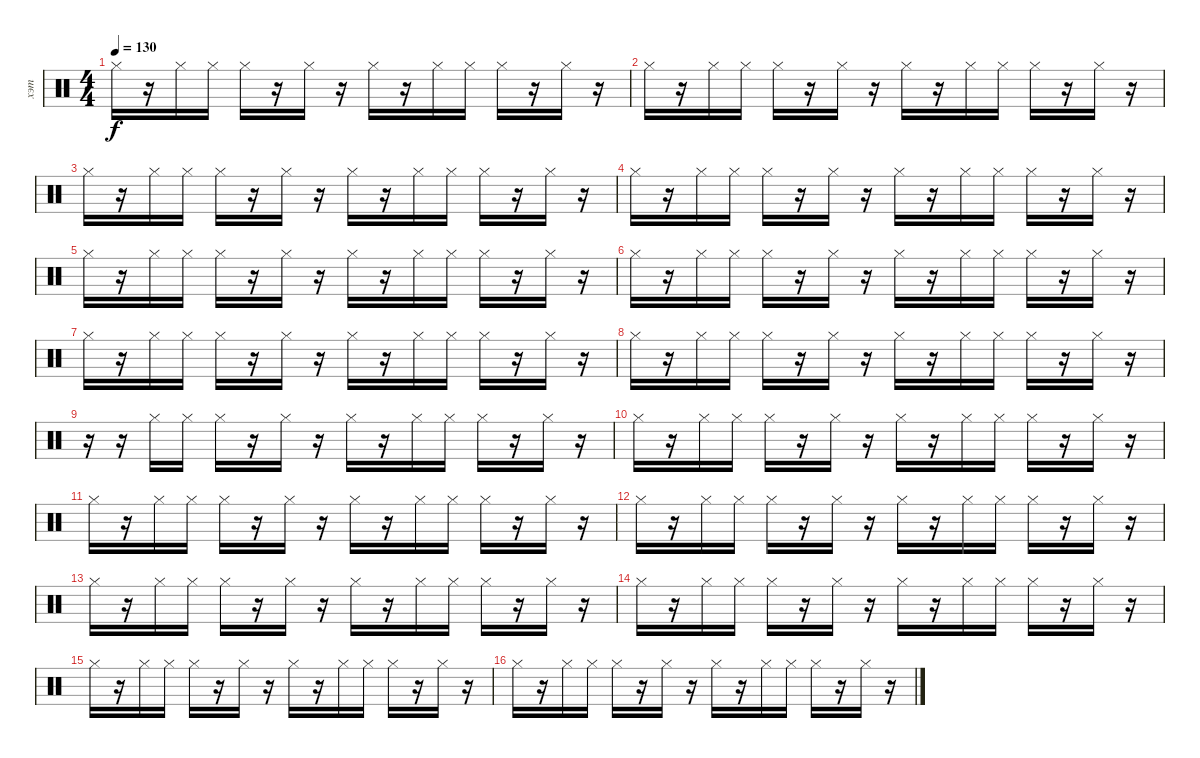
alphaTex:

\track ("хэт" "хэт") {instrument percussion}
\staff {score}
\articulation defaults
\ts (4 4)
\tempo 130
\clef neutral
\ks c "Hi-Hat (closed)".16{dy f}
r.16 "Hi-Hat (closed)".16 "Hi-Hat (closed)".16 "Hi-Hat (closed)".16 r.16 "Hi-Hat (closed)".16 r.16 "Hi-Hat (closed)".16 r.16 "Hi-Hat (closed)".16 "Hi-Hat (closed)".16 "Hi-Hat (closed)".16 r.16 "Hi-Hat (closed)".16 r.16 |
"Hi-Hat (closed)".16 r.16 "Hi-Hat (closed)".16 "Hi-Hat (closed)".16 "Hi-Hat (closed)".16 r.16 "Hi-Hat (closed)".16 r.16 "Hi-Hat (closed)".16 r.16 "Hi-Hat (closed)".16 "Hi-Hat (closed)".16 "Hi-Hat (closed)".16 r.16 "Hi-Hat (closed)".16 r.16 |
"Hi-Hat (closed)".16 r.16 "Hi-Hat (closed)".16 "Hi-Hat (closed)".16 "Hi-Hat (closed)".16 r.16 "Hi-Hat (closed)".16 r.16 "Hi-Hat (closed)".16 r.16 "Hi-Hat (closed)".16 "Hi-Hat (closed)".16 "Hi-Hat (closed)".16 r.16 "Hi-Hat (closed)".16 r.16 |
"Hi-Hat (closed)".16 r.16 "Hi-Hat (closed)".16 "Hi-Hat (closed)".16 "Hi-Hat (closed)".16 r.16 "Hi-Hat (closed)".16 r.16 "Hi-Hat (closed)".16 r.16 "Hi-Hat (closed)".16 "Hi-Hat (closed)".16 "Hi-Hat (closed)".16 r.16 "Hi-Hat (closed)".16 r.16 |
"Hi-Hat (closed)".16 r.16 "Hi-Hat (closed)".16 "Hi-Hat (closed)".16 "Hi-Hat (closed)".16 r.16 "Hi-Hat (closed)".16 r.16 "Hi-Hat (closed)".16 r.16 "Hi-Hat (closed)".16 "Hi-Hat (closed)".16 "Hi-Hat (closed)".16 r.16 "Hi-Hat (closed)".16 r.16 |
"Hi-Hat (closed)".16 r.16 "Hi-Hat (closed)".16 "Hi-Hat (closed)".16 "Hi-Hat (closed)".16 r.16 "Hi-Hat (closed)".16 r.16 "Hi-Hat (closed)".16 r.16 "Hi-Hat (closed)".16 "Hi-Hat (closed)".16 "Hi-Hat (closed)".16 r.16 "Hi-Hat (closed)".16 r.16 |
"Hi-Hat (closed)".16 r.16 "Hi-Hat (closed)".16 "Hi-Hat (closed)".16 "Hi-Hat (closed)".16 r.16 "Hi-Hat (closed)".16 r.16 "Hi-Hat (closed)".16 r.16 "Hi-Hat (closed)".16 "Hi-Hat (closed)".16 "Hi-Hat (closed)".16 r.16 "Hi-Hat (closed)".16 r.16 |
"Hi-Hat (closed)".16 r.16 "Hi-Hat (closed)".16 "Hi-Hat (closed)".16 "Hi-Hat (closed)".16 r.16 "Hi-Hat (closed)".16 r.16 "Hi-Hat (closed)".16 r.16 "Hi-Hat (closed)".16 "Hi-Hat (closed)".16 "Hi-Hat (closed)".16 r.16 "Hi-Hat (closed)".16 r.16 |
r.16 r.16 "Hi-Hat (closed)".16 "Hi-Hat (closed)".16 "Hi-Hat (closed)".16 r.16 "Hi-Hat (closed)".16 r.16 "Hi-Hat (closed)".16 r.16 "Hi-Hat (closed)".16 "Hi-Hat (closed)".16 "Hi-Hat (closed)".16 r.16 "Hi-Hat (closed)".16 r.16 |
"Hi-Hat (closed)".16 r.16 "Hi-Hat (closed)".16 "Hi-Hat (closed)".16 "Hi-Hat (closed)".16 r.16 "Hi-Hat (closed)".16 r.16 "Hi-Hat (closed)".16 r.16 "Hi-Hat (closed)".16 "Hi-Hat (closed)".16 "Hi-Hat (closed)".16 r.16 "Hi-Hat (closed)".16 r.16 |
"Hi-Hat (closed)".16 r.16 "Hi-Hat (closed)".16 "Hi-Hat (closed)".16 "Hi-Hat (closed)".16 r.16 "Hi-Hat (closed)".16 r.16 "Hi-Hat (closed)".16 r.16 "Hi-Hat (closed)".16 "Hi-Hat (closed)".16 "Hi-Hat (closed)".16 r.16 "Hi-Hat (closed)".16 r.16 |
"Hi-Hat (closed)".16 r.16 "Hi-Hat (closed)".16 "Hi-Hat (closed)".16 "Hi-Hat (closed)".16 r.16 "Hi-Hat (closed)".16 r.16 "Hi-Hat (closed)".16 r.16 "Hi-Hat (closed)".16 "Hi-Hat (closed)".16 "Hi-Hat (closed)".16 r.16 "Hi-Hat (closed)".16 r.16 |
"Hi-Hat (closed)".16 r.16 "Hi-Hat (closed)".16 "Hi-Hat (closed)".16 "Hi-Hat (closed)".16 r.16 "Hi-Hat (closed)".16 r.16 "Hi-Hat (closed)".16 r.16 "Hi-Hat (closed)".16 "Hi-Hat (closed)".16 "Hi-Hat (closed)".16 r.16 "Hi-Hat (closed)".16 r.16 |
"Hi-Hat (closed)".16 r.16 "Hi-Hat (closed)".16 "Hi-Hat (closed)".16 "Hi-Hat (closed)".16 r.16 "Hi-Hat (closed)".16 r.16 "Hi-Hat (closed)".16 r.16 "Hi-Hat (closed)".16 "Hi-Hat (closed)".16 "Hi-Hat (closed)".16 r.16 "Hi-Hat (closed)".16 r.16 |
"Hi-Hat (closed)".16 r.16 "Hi-Hat (closed)".16 "Hi-Hat (closed)".16 "Hi-Hat (closed)".16 r.16 "Hi-Hat (closed)".16 r.16 "Hi-Hat (closed)".16 r.16 "Hi-Hat (closed)".16 "Hi-Hat (closed)".16 "Hi-Hat (closed)".16 r.16 "Hi-Hat (closed)".16 r.16 |
"Hi-Hat (closed)".16 r.16 "Hi-Hat (closed)".16 "Hi-Hat (closed)".16 "Hi-Hat (closed)".16 r.16 "Hi-Hat (closed)".16 r.16 "Hi-Hat (closed)".16 r.16 "Hi-Hat (closed)".16 "Hi-Hat (closed)".16 "Hi-Hat (closed)".16 r.16 "Hi-Hat (closed)".16 r.16
